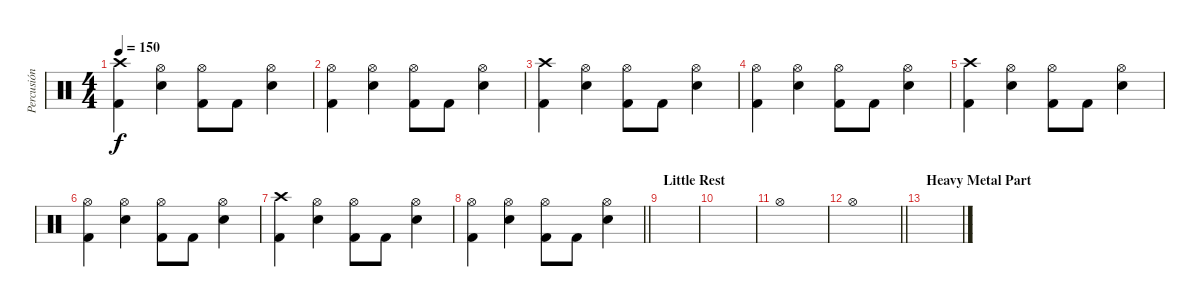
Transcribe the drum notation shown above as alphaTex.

\track ("Percusión" "Percusión") {instrument percussion}
\staff {score}
\articulation defaults
\ts (4 4)
\tempo 150
\clef neutral
\ks c
("Crash high (hit)" "Kick (hit) 2").4{dy f} ("Hi-Hat (open)" "Electric Snare (hit)").4 ("Hi-Hat (open)" "Kick (hit) 2").8 "Kick (hit) 2".8 ("Hi-Hat (open)" "Electric Snare (hit)").4 |
("Hi-Hat (open)" "Kick (hit) 2").4 ("Hi-Hat (open)" "Electric Snare (hit)").4 ("Hi-Hat (open)" "Kick (hit) 2").8 "Kick (hit) 2".8 ("Hi-Hat (open)" "Electric Snare (hit)").4 |
("Crash high (hit)" "Kick (hit) 2").4 ("Hi-Hat (open)" "Electric Snare (hit)").4 ("Hi-Hat (open)" "Kick (hit) 2").8 "Kick (hit) 2".8 ("Hi-Hat (open)" "Electric Snare (hit)").4 |
("Hi-Hat (open)" "Kick (hit) 2").4 ("Hi-Hat (open)" "Electric Snare (hit)").4 ("Hi-Hat (open)" "Kick (hit) 2").8 "Kick (hit) 2".8 ("Hi-Hat (open)" "Electric Snare (hit)").4 |
("Crash high (hit)" "Kick (hit) 2").4 ("Hi-Hat (open)" "Electric Snare (hit)").4 ("Hi-Hat (open)" "Kick (hit) 2").8 "Kick (hit) 2".8 ("Hi-Hat (open)" "Electric Snare (hit)").4 |
("Hi-Hat (open)" "Kick (hit) 2").4 ("Hi-Hat (open)" "Electric Snare (hit)").4 ("Hi-Hat (open)" "Kick (hit) 2").8 "Kick (hit) 2".8 ("Hi-Hat (open)" "Electric Snare (hit)").4 |
("Crash high (hit)" "Kick (hit) 2").4 ("Hi-Hat (open)" "Electric Snare (hit)").4 ("Hi-Hat (open)" "Kick (hit) 2").8 "Kick (hit) 2".8 ("Hi-Hat (open)" "Electric Snare (hit)").4 |
\barLineRight lightlight
("Hi-Hat (open)" "Kick (hit) 2").4 ("Hi-Hat (open)" "Electric Snare (hit)").4 ("Hi-Hat (open)" "Kick (hit) 2").8 "Kick (hit) 2".8 ("Hi-Hat (open)" "Electric Snare (hit)").4 |
\section ("" "Little Rest")
|
|
"Hi-Hat (open)".1 |
\barLineRight lightlight "Hi-Hat (open)".1
|
\section ("" "Heavy Metal Part")
